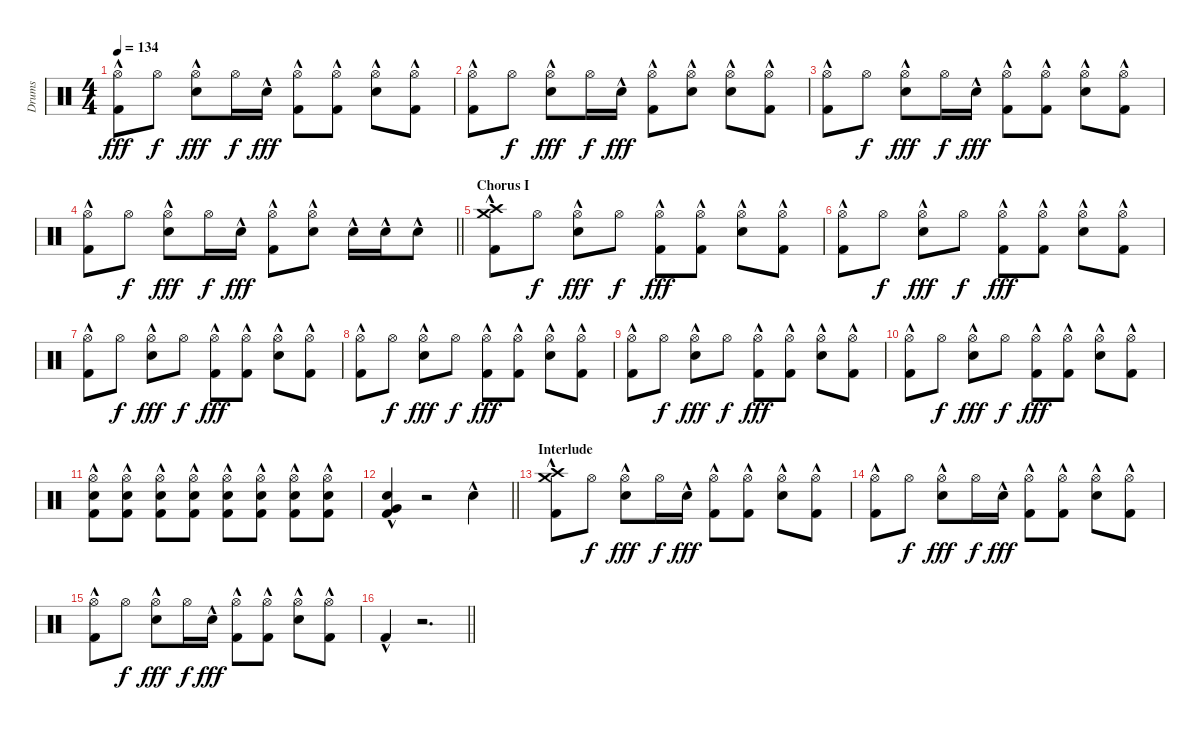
\track ("Drums" "Drums") {instrument percussion}
\staff {score}
\articulation defaults
\ts (4 4)
\tempo 134
\clef neutral
\ks c
("Hi-Hat (open)" "Kick (hit) 2"{hac}).8{dy fff} "Hi-Hat (open)".8{dy f} ("Hi-Hat (open)" "Snare (hit) 2"{hac}).8{dy fff} "Hi-Hat (open)".16{dy f} "Snare (hit) 2"{hac}.16{dy fff} ("Hi-Hat (open)" "Kick (hit) 2"{hac}).8 ("Hi-Hat (open)" "Kick (hit) 2"{hac}).8 ("Hi-Hat (open)" "Snare (hit) 2"{hac}).8 ("Hi-Hat (open)" "Kick (hit) 2"{hac}).8 |
("Hi-Hat (open)" "Kick (hit) 2"{hac}).8 "Hi-Hat (open)".8{dy f} ("Hi-Hat (open)" "Snare (hit) 2"{hac}).8{dy fff} "Hi-Hat (open)".16{dy f} "Snare (hit) 2"{hac}.16{dy fff} ("Hi-Hat (open)" "Kick (hit) 2"{hac}).8 ("Hi-Hat (open)"{hac} "Snare (hit) 2"{hac}).8 ("Hi-Hat (open)"{hac} "Snare (hit) 2"{hac}).8 ("Hi-Hat (open)" "Kick (hit) 2"{hac}).8 |
("Hi-Hat (open)" "Kick (hit) 2"{hac}).8 "Hi-Hat (open)".8{dy f} ("Hi-Hat (open)" "Snare (hit) 2"{hac}).8{dy fff} "Hi-Hat (open)".16{dy f} "Snare (hit) 2"{hac}.16{dy fff} ("Hi-Hat (open)" "Kick (hit) 2"{hac}).8 ("Hi-Hat (open)" "Kick (hit) 2"{hac}).8 ("Hi-Hat (open)" "Snare (hit) 2"{hac}).8 ("Hi-Hat (open)" "Kick (hit) 2"{hac}).8 |
\barLineRight lightlight
("Hi-Hat (open)" "Kick (hit) 2"{hac}).8 "Hi-Hat (open)".8{dy f} ("Hi-Hat (open)" "Snare (hit) 2"{hac}).8{dy fff} "Hi-Hat (open)".16{dy f} "Snare (hit) 2"{hac}.16{dy fff} ("Hi-Hat (open)" "Kick (hit) 2"{hac}).8 ("Hi-Hat (open)"{hac} "Snare (hit) 2"{hac}).8 "Snare (hit) 2"{hac}.16 "Snare (hit) 2"{hac}.16 "Snare (hit) 2"{hac}.8 |
\section ("" "Chorus I")
("Crash medium (hit)" "Crash high (hit)" "Kick (hit) 2"{hac}).8 "Hi-Hat (open)".8{dy f} ("Hi-Hat (open)" "Snare (hit) 2"{hac}).8{dy fff} "Hi-Hat (open)".8{dy f} ("Hi-Hat (open)" "Kick (hit) 2"{hac}).8{dy fff} ("Hi-Hat (open)" "Kick (hit) 2"{hac}).8 ("Hi-Hat (open)" "Snare (hit) 2"{hac}).8 ("Hi-Hat (open)" "Kick (hit) 2"{hac}).8 |
("Hi-Hat (open)" "Kick (hit) 2"{hac}).8 "Hi-Hat (open)".8{dy f} ("Hi-Hat (open)" "Snare (hit) 2"{hac}).8{dy fff} "Hi-Hat (open)".8{dy f} ("Hi-Hat (open)" "Kick (hit) 2"{hac}).8{dy fff} ("Hi-Hat (open)" "Kick (hit) 2"{hac}).8 ("Hi-Hat (open)" "Snare (hit) 2"{hac}).8 ("Hi-Hat (open)" "Kick (hit) 2"{hac}).8 |
("Hi-Hat (open)" "Kick (hit) 2"{hac}).8 "Hi-Hat (open)".8{dy f} ("Hi-Hat (open)" "Snare (hit) 2"{hac}).8{dy fff} "Hi-Hat (open)".8{dy f} ("Hi-Hat (open)" "Kick (hit) 2"{hac}).8{dy fff} ("Hi-Hat (open)" "Kick (hit) 2"{hac}).8 ("Hi-Hat (open)" "Snare (hit) 2"{hac}).8 ("Hi-Hat (open)" "Kick (hit) 2"{hac}).8 |
("Hi-Hat (open)" "Kick (hit) 2"{hac}).8 "Hi-Hat (open)".8{dy f} ("Hi-Hat (open)" "Snare (hit) 2"{hac}).8{dy fff} "Hi-Hat (open)".8{dy f} ("Hi-Hat (open)" "Kick (hit) 2"{hac}).8{dy fff} ("Hi-Hat (open)" "Kick (hit) 2"{hac}).8 ("Hi-Hat (open)" "Snare (hit) 2"{hac}).8 ("Hi-Hat (open)" "Kick (hit) 2"{hac}).8 |
("Hi-Hat (open)" "Kick (hit) 2"{hac}).8 "Hi-Hat (open)".8{dy f} ("Hi-Hat (open)" "Snare (hit) 2"{hac}).8{dy fff} "Hi-Hat (open)".8{dy f} ("Hi-Hat (open)" "Kick (hit) 2"{hac}).8{dy fff} ("Hi-Hat (open)" "Kick (hit) 2"{hac}).8 ("Hi-Hat (open)" "Snare (hit) 2"{hac}).8 ("Hi-Hat (open)" "Kick (hit) 2"{hac}).8 |
("Hi-Hat (open)" "Kick (hit) 2"{hac}).8 "Hi-Hat (open)".8{dy f} ("Hi-Hat (open)" "Snare (hit) 2"{hac}).8{dy fff} "Hi-Hat (open)".8{dy f} ("Hi-Hat (open)" "Kick (hit) 2"{hac}).8{dy fff} ("Hi-Hat (open)" "Kick (hit) 2"{hac}).8 ("Hi-Hat (open)" "Snare (hit) 2"{hac}).8 ("Hi-Hat (open)" "Kick (hit) 2"{hac}).8 |
("Hi-Hat (open)" "Snare (hit) 2" "Kick (hit) 2"{hac}).8 ("Hi-Hat (open)" "Snare (hit) 2" "Kick (hit) 2"{hac}).8 ("Hi-Hat (open)" "Snare (hit) 2" "Kick (hit) 2"{hac}).8 ("Hi-Hat (open)" "Snare (hit) 2" "Kick (hit) 2"{hac}).8 ("Hi-Hat (open)" "Snare (hit) 2" "Kick (hit) 2"{hac}).8 ("Hi-Hat (open)" "Snare (hit) 2" "Kick (hit) 2"{hac}).8 ("Hi-Hat (open)" "Snare (hit) 2" "Kick (hit) 2"{hac}).8 ("Hi-Hat (open)" "Snare (hit) 2" "Kick (hit) 2"{hac}).8 |
\barLineRight lightlight
("Snare (hit) 2"{hac} "Very Low Tom (hit)"{hac} "Kick (hit) 2"{hac}).4 r.2 "Snare (hit) 2"{hac}.4 |
\section ("" "Interlude")
("Crash medium (hit)" "Crash high (hit)" "Kick (hit) 2"{hac}).8 "Hi-Hat (open)".8{dy f} ("Hi-Hat (open)" "Snare (hit) 2"{hac}).8{dy fff} "Hi-Hat (open)".16{dy f} "Snare (hit) 2"{hac}.16{dy fff} ("Hi-Hat (open)" "Kick (hit) 2"{hac}).8 ("Hi-Hat (open)" "Kick (hit) 2"{hac}).8 ("Hi-Hat (open)" "Snare (hit) 2"{hac}).8 ("Hi-Hat (open)" "Kick (hit) 2"{hac}).8 |
("Hi-Hat (open)" "Kick (hit) 2"{hac}).8 "Hi-Hat (open)".8{dy f} ("Hi-Hat (open)" "Snare (hit) 2"{hac}).8{dy fff} "Hi-Hat (open)".16{dy f} "Snare (hit) 2"{hac}.16{dy fff} ("Hi-Hat (open)" "Kick (hit) 2"{hac}).8 ("Hi-Hat (open)" "Kick (hit) 2"{hac}).8 ("Hi-Hat (open)" "Snare (hit) 2"{hac}).8 ("Hi-Hat (open)" "Kick (hit) 2"{hac}).8 |
("Hi-Hat (open)" "Kick (hit) 2"{hac}).8 "Hi-Hat (open)".8{dy f} ("Hi-Hat (open)" "Snare (hit) 2"{hac}).8{dy fff} "Hi-Hat (open)".16{dy f} "Snare (hit) 2"{hac}.16{dy fff} ("Hi-Hat (open)" "Kick (hit) 2"{hac}).8 ("Hi-Hat (open)" "Kick (hit) 2"{hac}).8 ("Hi-Hat (open)" "Snare (hit) 2"{hac}).8 ("Hi-Hat (open)" "Kick (hit) 2"{hac}).8 |
\barLineRight lightlight "Kick (hit) 2"{hac}.4
r.2{d}
